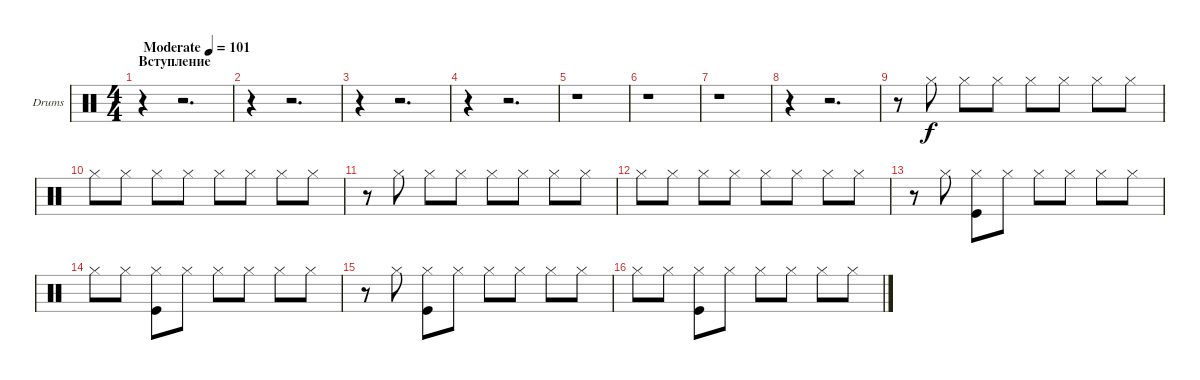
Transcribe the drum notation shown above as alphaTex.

\bracketExtendMode groupsimilarinstruments
\firstSystemTrackNameOrientation horizontal
\otherSystemsTrackNameOrientation horizontal
\track ("Г.Гурьянов (ударные)" "Drums") {instrument percussion}
\staff {score}
\articulation defaults
\ts (4 4)
\beaming (8 2 2 2 2)
\section ("" "Вступление")
\tempo (101 "Moderate")
\clef neutral
\ks c
r.4{dy f} r.2{d} |
r.4 r.2{d} |
r.4 r.2{d} |
r.4 r.2{d} |
r.1 |
r.1 |
r.1 |
r.4 r.2{d} |
r.8 "Hi-Hat (closed)".8 "Hi-Hat (closed)".8 "Hi-Hat (closed)".8 "Hi-Hat (closed)".8 "Hi-Hat (closed)".8 "Hi-Hat (closed)".8 "Hi-Hat (closed)".8 |
"Hi-Hat (closed)".8 "Hi-Hat (closed)".8 "Hi-Hat (closed)".8 "Hi-Hat (closed)".8 "Hi-Hat (closed)".8 "Hi-Hat (closed)".8 "Hi-Hat (closed)".8 "Hi-Hat (closed)".8 |
r.8 "Hi-Hat (closed)".8 "Hi-Hat (closed)".8 "Hi-Hat (closed)".8 "Hi-Hat (closed)".8 "Hi-Hat (closed)".8 "Hi-Hat (closed)".8 "Hi-Hat (closed)".8 |
"Hi-Hat (closed)".8 "Hi-Hat (closed)".8 "Hi-Hat (closed)".8 "Hi-Hat (closed)".8 "Hi-Hat (closed)".8 "Hi-Hat (closed)".8 "Hi-Hat (closed)".8 "Hi-Hat (closed)".8 |
r.8 "Hi-Hat (closed)".8 ("Hi-Hat (closed)" "Kick (hit)").8 "Hi-Hat (closed)".8 "Hi-Hat (closed)".8 "Hi-Hat (closed)".8 "Hi-Hat (closed)".8 "Hi-Hat (closed)".8 |
"Hi-Hat (closed)".8 "Hi-Hat (closed)".8 ("Hi-Hat (closed)" "Kick (hit)").8 "Hi-Hat (closed)".8 "Hi-Hat (closed)".8 "Hi-Hat (closed)".8 "Hi-Hat (closed)".8 "Hi-Hat (closed)".8 |
r.8 "Hi-Hat (closed)".8 ("Hi-Hat (closed)" "Kick (hit)").8 "Hi-Hat (closed)".8 "Hi-Hat (closed)".8 "Hi-Hat (closed)".8 "Hi-Hat (closed)".8 "Hi-Hat (closed)".8 |
"Hi-Hat (closed)".8 "Hi-Hat (closed)".8 ("Hi-Hat (closed)" "Kick (hit)").8 "Hi-Hat (closed)".8 "Hi-Hat (closed)".8 "Hi-Hat (closed)".8 "Hi-Hat (closed)".8 "Hi-Hat (closed)".8
